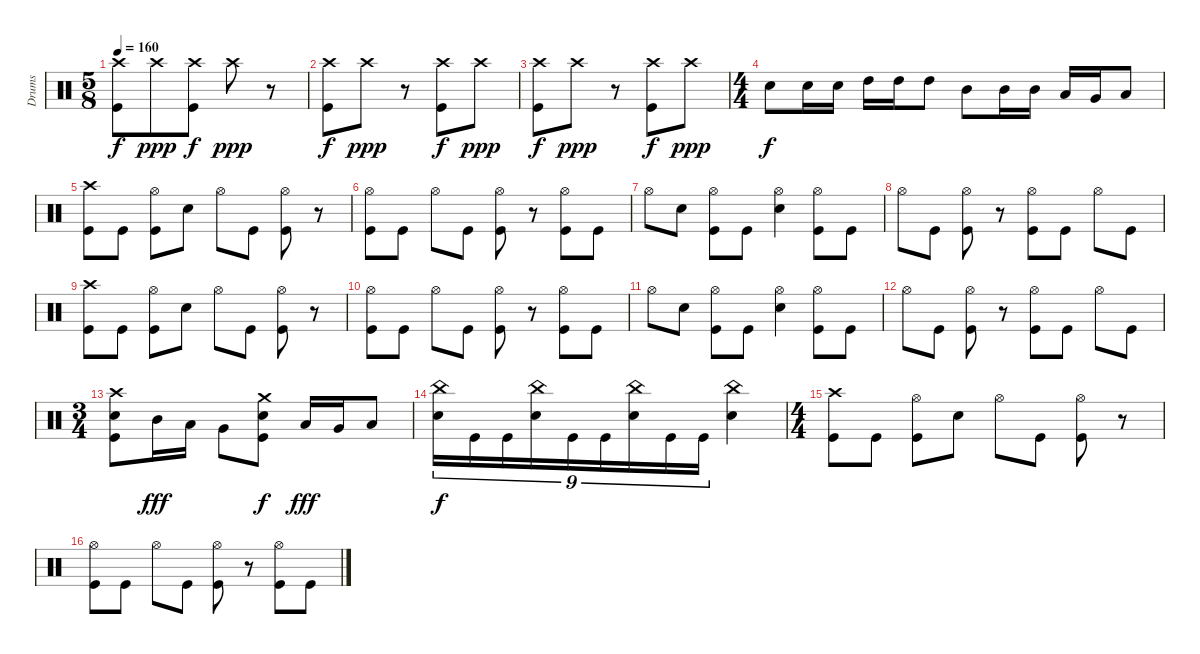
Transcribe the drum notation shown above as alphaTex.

\track ("Drums" "Drums") {instrument percussion}
\staff {score}
\articulation defaults
\ts (5 8)
\tempo 160
\clef neutral
\ks c
("Crash high (hit)" "Kick (hit)").8{dy f} "Crash high (hit)".8{dy ppp} ("Crash high (hit)" "Kick (hit)").8{dy f} "Crash high (hit)".8{dy ppp} r.8 |
("Crash high (hit)" "Kick (hit)").8{dy f} "Crash high (hit)".8{dy ppp} r.8 ("Crash high (hit)" "Kick (hit)").8{dy f} "Crash high (hit)".8{dy ppp} |
("Crash high (hit)" "Kick (hit)").8{dy f} "Crash high (hit)".8{dy ppp} r.8 ("Crash high (hit)" "Kick (hit)").8{dy f} "Crash high (hit)".8{dy ppp} |
\ts (4 4)
"Electric Snare (hit)".8{dy f} "Electric Snare (hit)".16 "Electric Snare (hit)".16 "High Tom (hit)".16 "High Tom (hit)".16 "High Tom (hit)".8 "Mid Tom (hit)".8 "Mid Tom (hit)".16 "Mid Tom (hit)".16 "Low Tom (hit)".16 "Very Low Tom (hit)".16 "Low Floor Tom (hit)".8 |
("Crash high (hit)" "Kick (hit)").8 "Kick (hit)".8 ("Hi-Hat (open)" "Kick (hit)").8 "Electric Snare (hit)".8 "Hi-Hat (open)".8 "Kick (hit)".8 ("Hi-Hat (open)" "Kick (hit)").8 r.8 |
("Hi-Hat (open)" "Kick (hit)").8 "Kick (hit)".8 "Hi-Hat (open)".8 "Kick (hit)".8 ("Hi-Hat (open)" "Kick (hit)").8 r.8 ("Hi-Hat (open)" "Kick (hit)").8 "Kick (hit)".8 |
"Hi-Hat (open)".8 "Electric Snare (hit)".8 ("Hi-Hat (open)" "Kick (hit)").8 "Kick (hit)".8 ("Hi-Hat (open)" "Electric Snare (hit)").4 ("Hi-Hat (open)" "Kick (hit)").8 "Kick (hit)".8 |
"Hi-Hat (open)".8 "Kick (hit)".8 ("Hi-Hat (open)" "Kick (hit)").8 r.8 ("Hi-Hat (open)" "Kick (hit)").8 "Kick (hit)".8 "Hi-Hat (open)".8 "Kick (hit)".8 |
("Crash high (hit)" "Kick (hit)").8 "Kick (hit)".8 ("Hi-Hat (open)" "Kick (hit)").8 "Electric Snare (hit)".8 "Hi-Hat (open)".8 "Kick (hit)".8 ("Hi-Hat (open)" "Kick (hit)").8 r.8 |
("Hi-Hat (open)" "Kick (hit)").8 "Kick (hit)".8 "Hi-Hat (open)".8 "Kick (hit)".8 ("Hi-Hat (open)" "Kick (hit)").8 r.8 ("Hi-Hat (open)" "Kick (hit)").8 "Kick (hit)".8 |
"Hi-Hat (open)".8 "Electric Snare (hit)".8 ("Hi-Hat (open)" "Kick (hit)").8 "Kick (hit)".8 ("Hi-Hat (open)" "Electric Snare (hit)").4 ("Hi-Hat (open)" "Kick (hit)").8 "Kick (hit)".8 |
"Hi-Hat (open)".8 "Kick (hit)".8 ("Hi-Hat (open)" "Kick (hit)").8 r.8 ("Hi-Hat (open)" "Kick (hit)").8 "Kick (hit)".8 "Hi-Hat (open)".8 "Kick (hit)".8 |
\ts (3 4)
("Crash high (hit)" "Electric Snare (hit)" "Kick (hit)").8 "Mid Tom (hit)".16{dy fff} "Low Tom (hit)".16 "Very Low Tom (hit)".8 ("Crash medium (hit)" "Electric Snare (hit)" "Kick (hit)").8{dy f} "Low Tom (hit)".16{dy fff} "Very Low Tom (hit)".16 "Low Floor Tom (hit)".8 |
("China (hit)" "Electric Snare (hit)").16{tu (9 8) dy f} "Kick (hit)".16{tu (9 8)} "Kick (hit)".16{tu (9 8)} ("China (hit)" "Electric Snare (hit)").16{tu (9 8)} "Kick (hit)".16{tu (9 8)} "Kick (hit)".16{tu (9 8)} ("China (hit)" "Electric Snare (hit)").16{tu (9 8)} "Kick (hit)".16{tu (9 8)} "Kick (hit)".16{tu (9 8)} ("China (hit)" "Electric Snare (hit)").4 |
\ts (4 4)
("Crash high (hit)" "Kick (hit)").8 "Kick (hit)".8 ("Hi-Hat (open)" "Kick (hit)").8 "Electric Snare (hit)".8 "Hi-Hat (open)".8 "Kick (hit)".8 ("Hi-Hat (open)" "Kick (hit)").8 r.8 |
("Hi-Hat (open)" "Kick (hit)").8 "Kick (hit)".8 "Hi-Hat (open)".8 "Kick (hit)".8 ("Hi-Hat (open)" "Kick (hit)").8 r.8 ("Hi-Hat (open)" "Kick (hit)").8 "Kick (hit)".8
